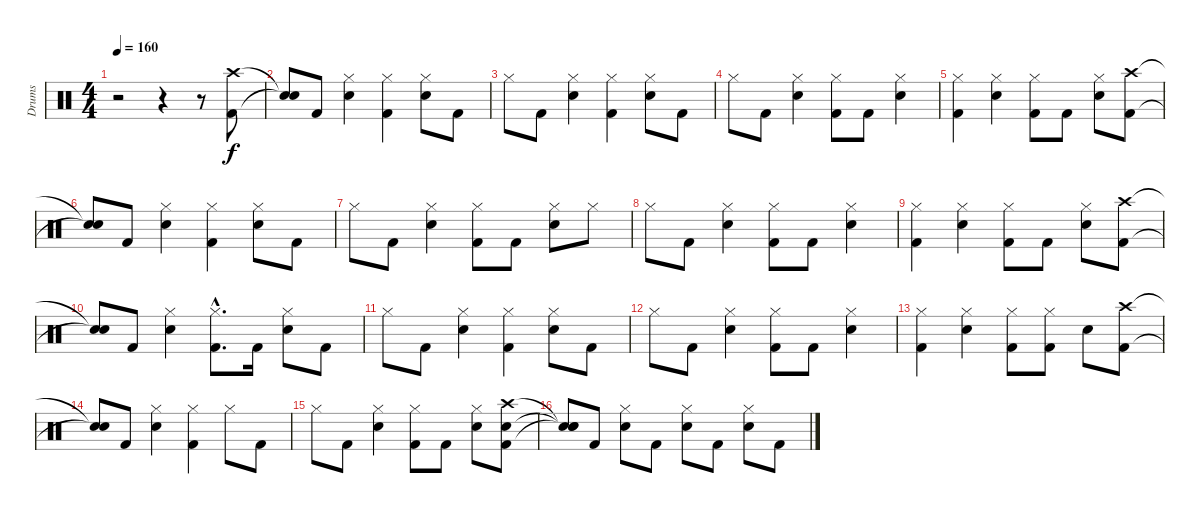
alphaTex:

\track ("Drums" "Drums") {instrument percussion}
\staff {score}
\articulation defaults
\ts (4 4)
\tempo 160
\clef neutral
\ks c
r.2{dy f} r.4 r.8 ("Kick (hit) 2" "Crash high (hit)").8 |
("Snare (hit)"{t} "Snare (hit)"{t}).8 "Kick (hit) 2".8 ("Hi-Hat (closed)" "Snare (hit) 2").4 ("Hi-Hat (closed)" "Kick (hit) 2").4 ("Hi-Hat (closed)" "Snare (hit) 2").8 "Kick (hit) 2".8 |
"Hi-Hat (closed)".8 "Kick (hit) 2".8 ("Hi-Hat (closed)" "Snare (hit) 2").4 ("Hi-Hat (closed)" "Kick (hit) 2").4 ("Hi-Hat (closed)" "Snare (hit) 2").8 "Kick (hit) 2".8 |
"Hi-Hat (closed)".8 "Kick (hit) 2".8 ("Hi-Hat (closed)" "Snare (hit) 2").4 ("Hi-Hat (closed)" "Kick (hit) 2").8 "Kick (hit) 2".8 ("Hi-Hat (closed)" "Snare (hit) 2").4 |
("Hi-Hat (closed)" "Kick (hit) 2").4 ("Hi-Hat (closed)" "Snare (hit) 2").4 ("Hi-Hat (closed)" "Kick (hit) 2").8 "Kick (hit) 2".8 ("Hi-Hat (closed)" "Snare (hit) 2").8 ("Crash high (hit)" "Kick (hit) 2").8 |
("Snare (hit)"{t} "Snare (hit)"{t}).8 "Kick (hit) 2".8 ("Hi-Hat (closed)" "Snare (hit) 2").4 ("Hi-Hat (closed)" "Kick (hit) 2").4 ("Hi-Hat (closed)" "Snare (hit) 2").8 "Kick (hit) 2".8 |
"Hi-Hat (closed)".8 "Kick (hit) 2".8 ("Hi-Hat (closed)" "Snare (hit) 2").4 ("Hi-Hat (closed)" "Kick (hit) 2").8 "Kick (hit) 2".8 ("Hi-Hat (closed)" "Snare (hit) 2").8 "Hi-Hat (closed)".8 |
"Hi-Hat (closed)".8 "Kick (hit) 2".8 ("Hi-Hat (closed)" "Snare (hit) 2").4 ("Hi-Hat (closed)" "Kick (hit) 2").8 "Kick (hit) 2".8 ("Hi-Hat (closed)" "Snare (hit) 2").4 |
("Hi-Hat (closed)" "Kick (hit) 2").4 ("Hi-Hat (closed)" "Snare (hit) 2").4 ("Hi-Hat (closed)" "Kick (hit) 2").8 "Kick (hit) 2".8 ("Hi-Hat (closed)" "Snare (hit) 2").8 ("Crash high (hit)" "Kick (hit) 2").8 |
("Snare (hit)"{t} "Snare (hit)"{t}).8 "Kick (hit) 2".8 ("Hi-Hat (closed)" "Snare (hit) 2").4 ("Hi-Hat (closed)"{hac} "Kick (hit) 2"{hac}).8{d} "Kick (hit) 2".16 ("Hi-Hat (closed)" "Snare (hit) 2").8 "Kick (hit) 2".8 |
"Hi-Hat (closed)".8 "Kick (hit) 2".8 ("Hi-Hat (closed)" "Snare (hit) 2").4 ("Hi-Hat (closed)" "Kick (hit) 2").4 ("Hi-Hat (closed)" "Snare (hit) 2").8 "Kick (hit) 2".8 |
"Hi-Hat (closed)".8 "Kick (hit) 2".8 ("Hi-Hat (closed)" "Snare (hit) 2").4 ("Hi-Hat (closed)" "Kick (hit) 2").8 "Kick (hit) 2".8 ("Hi-Hat (closed)" "Snare (hit) 2").4 |
("Hi-Hat (closed)" "Kick (hit) 2").4 ("Hi-Hat (closed)" "Snare (hit) 2").4 ("Hi-Hat (closed)" "Kick (hit) 2").8 ("Hi-Hat (closed)" "Kick (hit) 2").8 "Snare (hit) 2".8 ("Crash high (hit)" "Kick (hit) 2").8 |
("Snare (hit)"{t} "Snare (hit)"{t}).8 "Kick (hit) 2".8 ("Hi-Hat (closed)" "Snare (hit) 2").4 ("Hi-Hat (closed)" "Kick (hit) 2").4 "Hi-Hat (closed)".8 "Kick (hit) 2".8 |
"Hi-Hat (closed)".8 "Kick (hit) 2".8 ("Hi-Hat (closed)" "Snare (hit) 2").4 ("Hi-Hat (closed)" "Kick (hit) 2").8 "Kick (hit) 2".8 ("Hi-Hat (closed)" "Snare (hit) 2").8 ("Crash high (hit)" "Kick (hit) 2" "Snare (hit) 2").8 |
("Snare (hit)"{t} "Snare (hit)"{t} "Snare (hit)"{t}).8 "Kick (hit) 2".8 ("Hi-Hat (closed)" "Snare (hit) 2").8 "Kick (hit) 2".8 ("Hi-Hat (closed)" "Snare (hit) 2").8 "Kick (hit) 2".8 ("Hi-Hat (closed)" "Snare (hit) 2").8 "Kick (hit) 2".8
